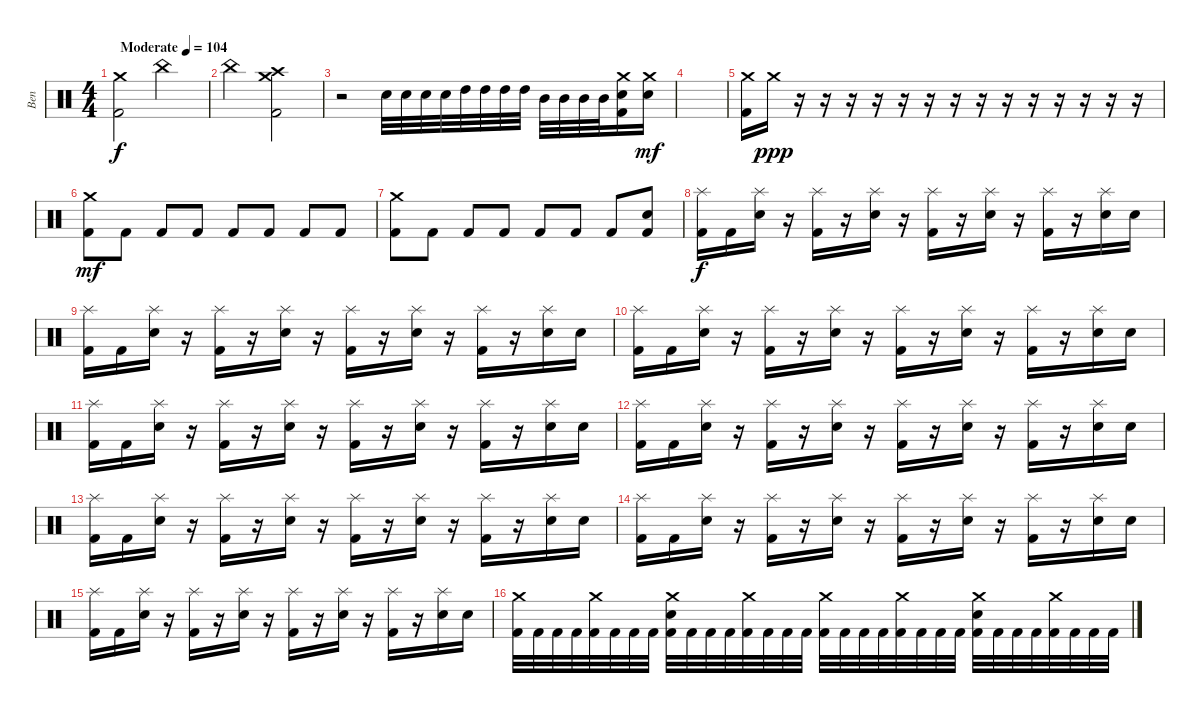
\track ("Ben" "Ben") {instrument percussion}
\staff {score}
\articulation defaults
\ts (4 4)
\tempo (104 "Moderate")
\clef neutral
\ks c
("Crash medium (hit)" "Kick (hit) 2").2{dy f} "China (hit)".2 |
"China (hit)".2 ("Crash high (hit)" "Crash medium (hit)" "Kick (hit) 2").2 |
r.2 "Snare (hit) 2".32 "Snare (hit) 2".32 "Snare (hit) 2".32 "Snare (hit) 2".32 "High Tom (hit)".32 "High Tom (hit)".32 "High Tom (hit)".32 "High Tom (hit)".32 "Mid Tom (hit)".32 "Mid Tom (hit)".32 "Mid Tom (hit)".32 "Mid Tom (hit)".32 ("Crash medium (hit)" "Snare (hit) 2" "Kick (hit) 2").16 ("Crash medium (hit)" "Snare (hit)").16{dy mf} |
|
("Crash medium (hit)" "Kick (hit) 2").16 "Crash medium (hit)".16{dy ppp} r.16 r.16 r.16 r.16 r.16 r.16 r.16 r.16 r.16 r.16 r.16 r.16 r.16 r.16 |
("Crash medium (hit)" "Kick (hit) 2").8{dy mf} "Kick (hit) 2".8 "Kick (hit) 2".8 "Kick (hit) 2".8 "Kick (hit) 2".8 "Kick (hit) 2".8 "Kick (hit) 2".8 "Kick (hit) 2".8 |
("Crash medium (hit)" "Kick (hit) 2").8 "Kick (hit) 2".8 "Kick (hit) 2".8 "Kick (hit) 2".8 "Kick (hit) 2".8 "Kick (hit) 2".8 "Kick (hit) 2".8 ("Snare (hit) 2" "Kick (hit) 2").8 |
("Splash (hit)" "Kick (hit) 2").16{dy f} "Kick (hit) 2".16 ("Splash (hit)" "Snare (hit) 2").16 r.16 ("Splash (hit)" "Kick (hit) 2").16 r.16 ("Splash (hit)" "Snare (hit) 2").16 r.16 ("Splash (hit)" "Kick (hit) 2").16 r.16 ("Splash (hit)" "Snare (hit) 2").16 r.16 ("Splash (hit)" "Kick (hit) 2").16 r.16 ("Splash (hit)" "Snare (hit) 2").16 "Snare (hit) 2".16 |
("Splash (hit)" "Kick (hit) 2").16 "Kick (hit) 2".16 ("Splash (hit)" "Snare (hit) 2").16 r.16 ("Splash (hit)" "Kick (hit) 2").16 r.16 ("Splash (hit)" "Snare (hit) 2").16 r.16 ("Splash (hit)" "Kick (hit) 2").16 r.16 ("Splash (hit)" "Snare (hit) 2").16 r.16 ("Splash (hit)" "Kick (hit) 2").16 r.16 ("Splash (hit)" "Snare (hit) 2").16 "Snare (hit) 2".16 |
("Splash (hit)" "Kick (hit) 2").16 "Kick (hit) 2".16 ("Splash (hit)" "Snare (hit) 2").16 r.16 ("Splash (hit)" "Kick (hit) 2").16 r.16 ("Splash (hit)" "Snare (hit) 2").16 r.16 ("Splash (hit)" "Kick (hit) 2").16 r.16 ("Splash (hit)" "Snare (hit) 2").16 r.16 ("Splash (hit)" "Kick (hit) 2").16 r.16 ("Splash (hit)" "Snare (hit) 2").16 "Snare (hit) 2".16 |
("Splash (hit)" "Kick (hit) 2").16 "Kick (hit) 2".16 ("Splash (hit)" "Snare (hit) 2").16 r.16 ("Splash (hit)" "Kick (hit) 2").16 r.16 ("Splash (hit)" "Snare (hit) 2").16 r.16 ("Splash (hit)" "Kick (hit) 2").16 r.16 ("Splash (hit)" "Snare (hit) 2").16 r.16 ("Splash (hit)" "Kick (hit) 2").16 r.16 ("Splash (hit)" "Snare (hit) 2").16 "Snare (hit) 2".16 |
("Splash (hit)" "Kick (hit) 2").16 "Kick (hit) 2".16 ("Splash (hit)" "Snare (hit) 2").16 r.16 ("Splash (hit)" "Kick (hit) 2").16 r.16 ("Splash (hit)" "Snare (hit) 2").16 r.16 ("Splash (hit)" "Kick (hit) 2").16 r.16 ("Splash (hit)" "Snare (hit) 2").16 r.16 ("Splash (hit)" "Kick (hit) 2").16 r.16 ("Splash (hit)" "Snare (hit) 2").16 "Snare (hit) 2".16 |
("Splash (hit)" "Kick (hit) 2").16 "Kick (hit) 2".16 ("Splash (hit)" "Snare (hit) 2").16 r.16 ("Splash (hit)" "Kick (hit) 2").16 r.16 ("Splash (hit)" "Snare (hit) 2").16 r.16 ("Splash (hit)" "Kick (hit) 2").16 r.16 ("Splash (hit)" "Snare (hit) 2").16 r.16 ("Splash (hit)" "Kick (hit) 2").16 r.16 ("Splash (hit)" "Snare (hit) 2").16 "Snare (hit) 2".16 |
("Splash (hit)" "Kick (hit) 2").16 "Kick (hit) 2".16 ("Splash (hit)" "Snare (hit) 2").16 r.16 ("Splash (hit)" "Kick (hit) 2").16 r.16 ("Splash (hit)" "Snare (hit) 2").16 r.16 ("Splash (hit)" "Kick (hit) 2").16 r.16 ("Splash (hit)" "Snare (hit) 2").16 r.16 ("Splash (hit)" "Kick (hit) 2").16 r.16 ("Splash (hit)" "Snare (hit) 2").16 "Snare (hit) 2".16 |
("Splash (hit)" "Kick (hit) 2").16 "Kick (hit) 2".16 ("Splash (hit)" "Snare (hit) 2").16 r.16 ("Splash (hit)" "Kick (hit) 2").16 r.16 ("Splash (hit)" "Snare (hit) 2").16 r.16 ("Splash (hit)" "Kick (hit) 2").16 r.16 ("Splash (hit)" "Snare (hit) 2").16 r.16 ("Splash (hit)" "Kick (hit) 2").16 r.16 ("Splash (hit)" "Snare (hit) 2").16 "Snare (hit) 2".16 |
("Crash medium (hit)" "Kick (hit) 2").32 "Kick (hit) 2".32 "Kick (hit) 2".32 "Kick (hit) 2".32 ("Crash medium (hit)" "Kick (hit) 2").32 "Kick (hit) 2".32 "Kick (hit) 2".32 "Kick (hit) 2".32 ("Crash medium (hit)" "Snare (hit) 2" "Kick (hit) 2").32 "Kick (hit) 2".32 "Kick (hit) 2".32 "Kick (hit) 2".32 ("Crash medium (hit)" "Kick (hit) 2").32 "Kick (hit) 2".32 "Kick (hit) 2".32 "Kick (hit) 2".32 ("Crash medium (hit)" "Kick (hit) 2").32 "Kick (hit) 2".32 "Kick (hit) 2".32 "Kick (hit) 2".32 ("Crash medium (hit)" "Kick (hit) 2").32 "Kick (hit) 2".32 "Kick (hit) 2".32 "Kick (hit) 2".32 ("Crash medium (hit)" "Snare (hit) 2" "Kick (hit) 2").32 "Kick (hit) 2".32 "Kick (hit) 2".32 "Kick (hit) 2".32 ("Crash medium (hit)" "Kick (hit) 2").32 "Kick (hit) 2".32 "Kick (hit) 2".32 "Kick (hit) 2".32
